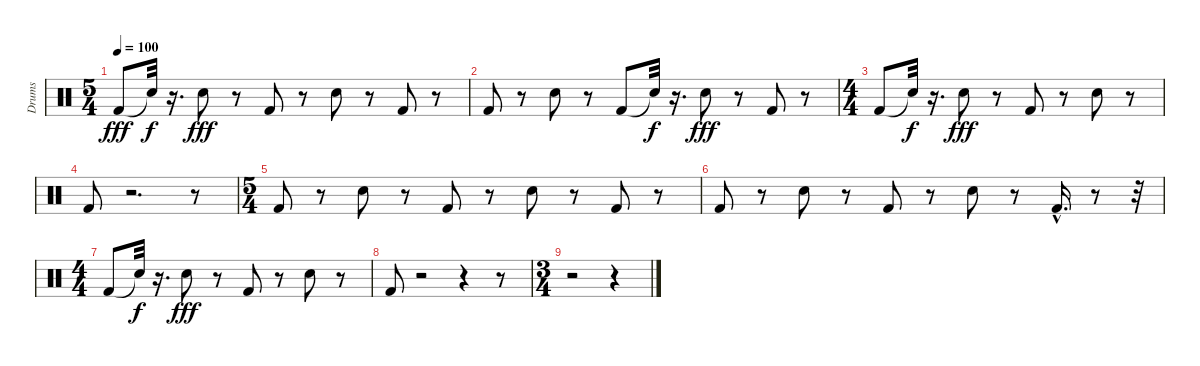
\track ("Drums" "Drums") {instrument percussion}
\staff {score}
\articulation defaults
\ts (5 4)
\tempo 100
\clef neutral
\ks c "Kick (hit) 2".8{dy fff} "Snare (hit)"{t}.32{dy f}
r.16{d} "Electric Snare (hit)".8{dy fff} r.8 "Kick (hit) 2".8 r.8 "Electric Snare (hit)".8 r.8 "Kick (hit) 2".8 r.8 |
"Kick (hit) 2".8 r.8 "Electric Snare (hit)".8 r.8 "Kick (hit) 2".8 "Snare (hit)"{t}.32{dy f} r.16{d} "Electric Snare (hit)".8{dy fff} r.8 "Kick (hit) 2".8 r.8 |
\ts (4 4)
"Kick (hit) 2".8 "Snare (hit)"{t}.32{dy f} r.16{d} "Electric Snare (hit)".8{dy fff} r.8 "Kick (hit) 2".8 r.8 "Electric Snare (hit)".8 r.8 |
"Kick (hit) 2".8 r.2{d} r.8 |
\ts (5 4)
"Kick (hit) 2".8 r.8 "Electric Snare (hit)".8 r.8 "Kick (hit) 2".8 r.8 "Electric Snare (hit)".8 r.8 "Kick (hit) 2".8 r.8 |
"Kick (hit) 2".8 r.8 "Electric Snare (hit)".8 r.8 "Kick (hit) 2".8 r.8 "Electric Snare (hit)".8 r.8 "Kick (hit) 2"{hac}.16{d} r.8 r.32 |
\ts (4 4)
"Kick (hit) 2".8 "Snare (hit)"{t}.32{dy f} r.16{d} "Electric Snare (hit)".8{dy fff} r.8 "Kick (hit) 2".8 r.8 "Electric Snare (hit)".8 r.8 |
"Kick (hit) 2".8 r.2 r.4 r.8 |
\ts (3 4)
r.2 r.4
